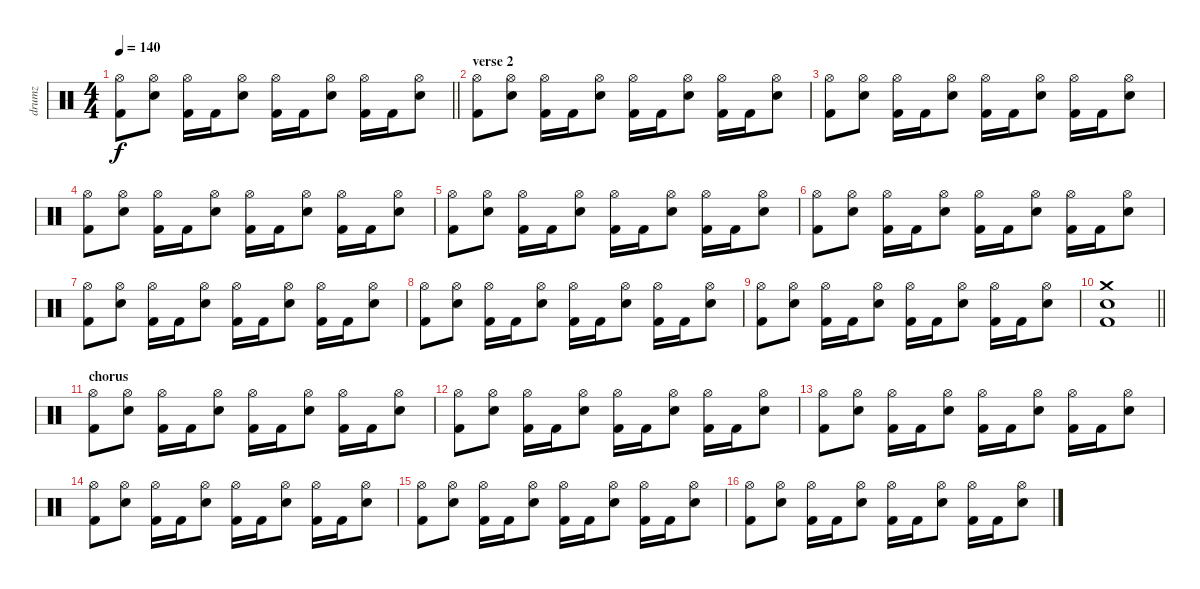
\track ("drumz" "drumz") {instrument percussion}
\staff {score}
\articulation defaults
\ts (4 4)
\tempo 140
\clef neutral
\barLineRight lightlight
\ks c
("Hi-Hat (open)" "Kick (hit) 2").8{dy f} ("Hi-Hat (open)" "Electric Snare (hit)").8 ("Hi-Hat (open)" "Kick (hit) 2").16 "Kick (hit) 2".16 ("Hi-Hat (open)" "Electric Snare (hit)").8 ("Hi-Hat (open)" "Kick (hit) 2").16 "Kick (hit) 2".16 ("Hi-Hat (open)" "Electric Snare (hit)").8 ("Hi-Hat (open)" "Kick (hit) 2").16 "Kick (hit) 2".16 ("Hi-Hat (open)" "Electric Snare (hit)").8 |
\section ("" "verse 2")
("Hi-Hat (open)" "Kick (hit) 2").8 ("Hi-Hat (open)" "Electric Snare (hit)").8 ("Hi-Hat (open)" "Kick (hit) 2").16 "Kick (hit) 2".16 ("Hi-Hat (open)" "Electric Snare (hit)").8 ("Hi-Hat (open)" "Kick (hit) 2").16 "Kick (hit) 2".16 ("Hi-Hat (open)" "Electric Snare (hit)").8 ("Hi-Hat (open)" "Kick (hit) 2").16 "Kick (hit) 2".16 ("Hi-Hat (open)" "Electric Snare (hit)").8 |
("Hi-Hat (open)" "Kick (hit) 2").8 ("Hi-Hat (open)" "Electric Snare (hit)").8 ("Hi-Hat (open)" "Kick (hit) 2").16 "Kick (hit) 2".16 ("Hi-Hat (open)" "Electric Snare (hit)").8 ("Hi-Hat (open)" "Kick (hit) 2").16 "Kick (hit) 2".16 ("Hi-Hat (open)" "Electric Snare (hit)").8 ("Hi-Hat (open)" "Kick (hit) 2").16 "Kick (hit) 2".16 ("Hi-Hat (open)" "Electric Snare (hit)").8 |
("Hi-Hat (open)" "Kick (hit) 2").8 ("Hi-Hat (open)" "Electric Snare (hit)").8 ("Hi-Hat (open)" "Kick (hit) 2").16 "Kick (hit) 2".16 ("Hi-Hat (open)" "Electric Snare (hit)").8 ("Hi-Hat (open)" "Kick (hit) 2").16 "Kick (hit) 2".16 ("Hi-Hat (open)" "Electric Snare (hit)").8 ("Hi-Hat (open)" "Kick (hit) 2").16 "Kick (hit) 2".16 ("Hi-Hat (open)" "Electric Snare (hit)").8 |
("Hi-Hat (open)" "Kick (hit) 2").8 ("Hi-Hat (open)" "Electric Snare (hit)").8 ("Hi-Hat (open)" "Kick (hit) 2").16 "Kick (hit) 2".16 ("Hi-Hat (open)" "Electric Snare (hit)").8 ("Hi-Hat (open)" "Kick (hit) 2").16 "Kick (hit) 2".16 ("Hi-Hat (open)" "Electric Snare (hit)").8 ("Hi-Hat (open)" "Kick (hit) 2").16 "Kick (hit) 2".16 ("Hi-Hat (open)" "Electric Snare (hit)").8 |
("Hi-Hat (open)" "Kick (hit) 2").8 ("Hi-Hat (open)" "Electric Snare (hit)").8 ("Hi-Hat (open)" "Kick (hit) 2").16 "Kick (hit) 2".16 ("Hi-Hat (open)" "Electric Snare (hit)").8 ("Hi-Hat (open)" "Kick (hit) 2").16 "Kick (hit) 2".16 ("Hi-Hat (open)" "Electric Snare (hit)").8 ("Hi-Hat (open)" "Kick (hit) 2").16 "Kick (hit) 2".16 ("Hi-Hat (open)" "Electric Snare (hit)").8 |
("Hi-Hat (open)" "Kick (hit) 2").8 ("Hi-Hat (open)" "Electric Snare (hit)").8 ("Hi-Hat (open)" "Kick (hit) 2").16 "Kick (hit) 2".16 ("Hi-Hat (open)" "Electric Snare (hit)").8 ("Hi-Hat (open)" "Kick (hit) 2").16 "Kick (hit) 2".16 ("Hi-Hat (open)" "Electric Snare (hit)").8 ("Hi-Hat (open)" "Kick (hit) 2").16 "Kick (hit) 2".16 ("Hi-Hat (open)" "Electric Snare (hit)").8 |
("Hi-Hat (open)" "Kick (hit) 2").8 ("Hi-Hat (open)" "Electric Snare (hit)").8 ("Hi-Hat (open)" "Kick (hit) 2").16 "Kick (hit) 2".16 ("Hi-Hat (open)" "Electric Snare (hit)").8 ("Hi-Hat (open)" "Kick (hit) 2").16 "Kick (hit) 2".16 ("Hi-Hat (open)" "Electric Snare (hit)").8 ("Hi-Hat (open)" "Kick (hit) 2").16 "Kick (hit) 2".16 ("Hi-Hat (open)" "Electric Snare (hit)").8 |
("Hi-Hat (open)" "Kick (hit) 2").8 ("Hi-Hat (open)" "Electric Snare (hit)").8 ("Hi-Hat (open)" "Kick (hit) 2").16 "Kick (hit) 2".16 ("Hi-Hat (open)" "Electric Snare (hit)").8 ("Hi-Hat (open)" "Kick (hit) 2").16 "Kick (hit) 2".16 ("Hi-Hat (open)" "Electric Snare (hit)").8 ("Hi-Hat (open)" "Kick (hit) 2").16 "Kick (hit) 2".16 ("Hi-Hat (open)" "Electric Snare (hit)").8 |
\barLineRight lightlight
("Crash medium (hit)" "Electric Snare (hit)" "Kick (hit) 2").1 |
\section ("" "chorus")
("Hi-Hat (open)" "Kick (hit) 2").8 ("Hi-Hat (open)" "Electric Snare (hit)").8 ("Hi-Hat (open)" "Kick (hit) 2").16 "Kick (hit) 2".16 ("Hi-Hat (open)" "Electric Snare (hit)").8 ("Hi-Hat (open)" "Kick (hit) 2").16 "Kick (hit) 2".16 ("Hi-Hat (open)" "Electric Snare (hit)").8 ("Hi-Hat (open)" "Kick (hit) 2").16 "Kick (hit) 2".16 ("Hi-Hat (open)" "Electric Snare (hit)").8 |
("Hi-Hat (open)" "Kick (hit) 2").8 ("Hi-Hat (open)" "Electric Snare (hit)").8 ("Hi-Hat (open)" "Kick (hit) 2").16 "Kick (hit) 2".16 ("Hi-Hat (open)" "Electric Snare (hit)").8 ("Hi-Hat (open)" "Kick (hit) 2").16 "Kick (hit) 2".16 ("Hi-Hat (open)" "Electric Snare (hit)").8 ("Hi-Hat (open)" "Kick (hit) 2").16 "Kick (hit) 2".16 ("Hi-Hat (open)" "Electric Snare (hit)").8 |
("Hi-Hat (open)" "Kick (hit) 2").8 ("Hi-Hat (open)" "Electric Snare (hit)").8 ("Hi-Hat (open)" "Kick (hit) 2").16 "Kick (hit) 2".16 ("Hi-Hat (open)" "Electric Snare (hit)").8 ("Hi-Hat (open)" "Kick (hit) 2").16 "Kick (hit) 2".16 ("Hi-Hat (open)" "Electric Snare (hit)").8 ("Hi-Hat (open)" "Kick (hit) 2").16 "Kick (hit) 2".16 ("Hi-Hat (open)" "Electric Snare (hit)").8 |
("Hi-Hat (open)" "Kick (hit) 2").8 ("Hi-Hat (open)" "Electric Snare (hit)").8 ("Hi-Hat (open)" "Kick (hit) 2").16 "Kick (hit) 2".16 ("Hi-Hat (open)" "Electric Snare (hit)").8 ("Hi-Hat (open)" "Kick (hit) 2").16 "Kick (hit) 2".16 ("Hi-Hat (open)" "Electric Snare (hit)").8 ("Hi-Hat (open)" "Kick (hit) 2").16 "Kick (hit) 2".16 ("Hi-Hat (open)" "Electric Snare (hit)").8 |
("Hi-Hat (open)" "Kick (hit) 2").8 ("Hi-Hat (open)" "Electric Snare (hit)").8 ("Hi-Hat (open)" "Kick (hit) 2").16 "Kick (hit) 2".16 ("Hi-Hat (open)" "Electric Snare (hit)").8 ("Hi-Hat (open)" "Kick (hit) 2").16 "Kick (hit) 2".16 ("Hi-Hat (open)" "Electric Snare (hit)").8 ("Hi-Hat (open)" "Kick (hit) 2").16 "Kick (hit) 2".16 ("Hi-Hat (open)" "Electric Snare (hit)").8 |
("Hi-Hat (open)" "Kick (hit) 2").8 ("Hi-Hat (open)" "Electric Snare (hit)").8 ("Hi-Hat (open)" "Kick (hit) 2").16 "Kick (hit) 2".16 ("Hi-Hat (open)" "Electric Snare (hit)").8 ("Hi-Hat (open)" "Kick (hit) 2").16 "Kick (hit) 2".16 ("Hi-Hat (open)" "Electric Snare (hit)").8 ("Hi-Hat (open)" "Kick (hit) 2").16 "Kick (hit) 2".16 ("Hi-Hat (open)" "Electric Snare (hit)").8
